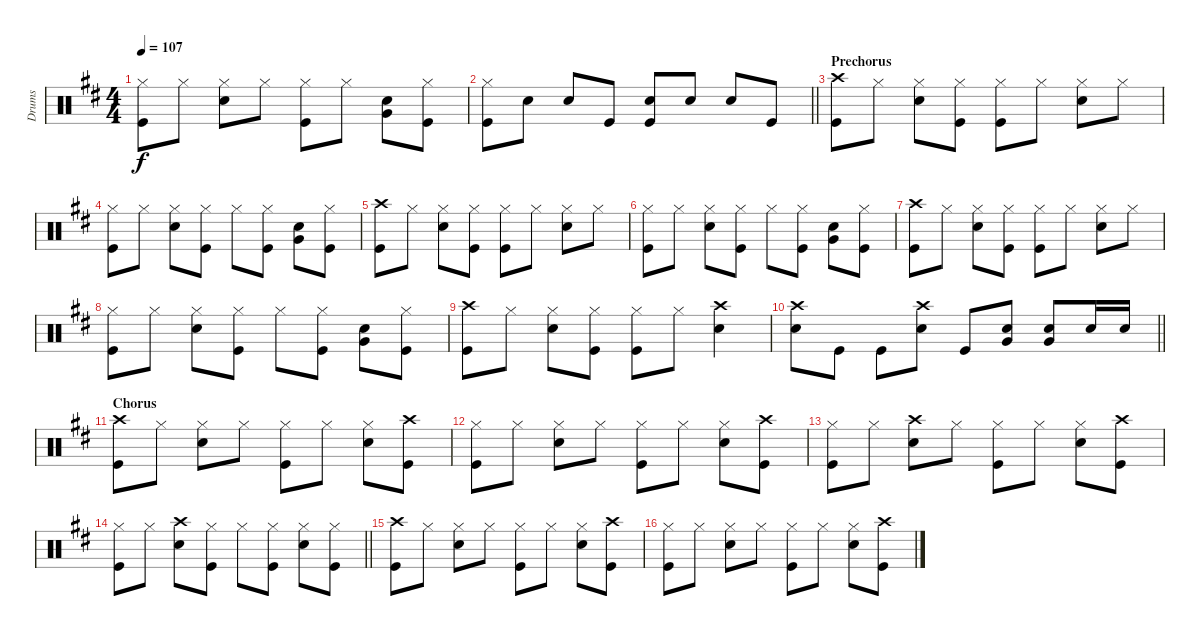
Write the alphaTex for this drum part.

\track ("Drums" "Drums") {instrument percussion}
\staff {score}
\articulation defaults
\ts (4 4)
\tempo 107
\clef neutral
\ks d
("Hi-Hat (closed)" "Kick (hit)").8{dy f} "Hi-Hat (closed)".8 ("Hi-Hat (closed)" "Snare (hit) 2").8 "Hi-Hat (closed)".8 ("Hi-Hat (closed)" "Kick (hit)").8 "Hi-Hat (closed)".8 ("Snare (hit) 2" "Very Low Tom (hit)").8 ("Hi-Hat (closed)" "Kick (hit)").8 |
\barLineRight lightlight
("Hi-Hat (closed)" "Kick (hit)").8 "Snare (hit) 2".8 "Snare (hit) 2".8 "Kick (hit)".8 ("Snare (hit) 2" "Kick (hit)").8 "Snare (hit) 2".8 "Snare (hit) 2".8 "Kick (hit)".8 |
\section ("" "Prechorus")
("Crash high (hit)" "Kick (hit)").8 "Hi-Hat (closed)".8 ("Hi-Hat (closed)" "Snare (hit) 2").8 ("Hi-Hat (closed)" "Kick (hit)").8 ("Hi-Hat (closed)" "Kick (hit)").8 "Hi-Hat (closed)".8 ("Hi-Hat (closed)" "Snare (hit) 2").8 "Hi-Hat (closed)".8 |
("Hi-Hat (closed)" "Kick (hit)").8 "Hi-Hat (closed)".8 ("Hi-Hat (closed)" "Snare (hit) 2").8 ("Hi-Hat (closed)" "Kick (hit)").8 "Hi-Hat (closed)".8 ("Hi-Hat (closed)" "Kick (hit)").8 ("Snare (hit) 2" "Very Low Tom (hit)").8 ("Hi-Hat (closed)" "Kick (hit)").8 |
("Crash high (hit)" "Kick (hit)").8 "Hi-Hat (closed)".8 ("Hi-Hat (closed)" "Snare (hit) 2").8 ("Hi-Hat (closed)" "Kick (hit)").8 ("Hi-Hat (closed)" "Kick (hit)").8 "Hi-Hat (closed)".8 ("Hi-Hat (closed)" "Snare (hit) 2").8 "Hi-Hat (closed)".8 |
("Hi-Hat (closed)" "Kick (hit)").8 "Hi-Hat (closed)".8 ("Hi-Hat (closed)" "Snare (hit) 2").8 ("Hi-Hat (closed)" "Kick (hit)").8 "Hi-Hat (closed)".8 ("Hi-Hat (closed)" "Kick (hit)").8 ("Snare (hit) 2" "Very Low Tom (hit)").8 ("Hi-Hat (closed)" "Kick (hit)").8 |
("Crash high (hit)" "Kick (hit)").8 "Hi-Hat (closed)".8 ("Hi-Hat (closed)" "Snare (hit) 2").8 ("Hi-Hat (closed)" "Kick (hit)").8 ("Hi-Hat (closed)" "Kick (hit)").8 "Hi-Hat (closed)".8 ("Hi-Hat (closed)" "Snare (hit) 2").8 "Hi-Hat (closed)".8 |
("Hi-Hat (closed)" "Kick (hit)").8 "Hi-Hat (closed)".8 ("Hi-Hat (closed)" "Snare (hit) 2").8 ("Hi-Hat (closed)" "Kick (hit)").8 "Hi-Hat (closed)".8 ("Hi-Hat (closed)" "Kick (hit)").8 ("Snare (hit) 2" "Very Low Tom (hit)").8 ("Hi-Hat (closed)" "Kick (hit)").8 |
("Crash high (hit)" "Kick (hit)").8 "Hi-Hat (closed)".8 ("Hi-Hat (closed)" "Snare (hit) 2").8 ("Hi-Hat (closed)" "Kick (hit)").8 ("Hi-Hat (closed)" "Kick (hit)").8 "Hi-Hat (closed)".8 ("Crash high (hit)" "Snare (hit) 2").4 |
\barLineRight lightlight
("Crash high (hit)" "Snare (hit) 2").8 "Kick (hit)".8 "Kick (hit)".8 ("Crash high (hit)" "Snare (hit) 2").8 "Kick (hit)".8 ("Snare (hit) 2" "Very Low Tom (hit)").8 ("Snare (hit) 2" "Very Low Tom (hit)").8 "Snare (hit) 2".16 "Snare (hit) 2".16 |
\section ("" "Chorus")
("Crash high (hit)" "Kick (hit)").8 "Hi-Hat (closed)".8 ("Hi-Hat (closed)" "Snare (hit) 2").8 "Hi-Hat (closed)".8 ("Hi-Hat (closed)" "Kick (hit)").8 "Hi-Hat (closed)".8 ("Hi-Hat (closed)" "Snare (hit) 2").8 ("Crash high (hit)" "Kick (hit)").8 |
("Hi-Hat (closed)" "Kick (hit)").8 "Hi-Hat (closed)".8 ("Hi-Hat (closed)" "Snare (hit) 2").8 "Hi-Hat (closed)".8 ("Hi-Hat (closed)" "Kick (hit)").8 "Hi-Hat (closed)".8 ("Hi-Hat (closed)" "Snare (hit) 2").8 ("Crash high (hit)" "Kick (hit)").8 |
("Hi-Hat (closed)" "Kick (hit)").8 "Hi-Hat (closed)".8 ("Crash high (hit)" "Snare (hit) 2").8 "Hi-Hat (closed)".8 ("Hi-Hat (closed)" "Kick (hit)").8 "Hi-Hat (closed)".8 ("Hi-Hat (closed)" "Snare (hit) 2").8 ("Crash high (hit)" "Kick (hit)").8 |
\barLineRight lightlight
("Hi-Hat (closed)" "Kick (hit)").8 "Hi-Hat (closed)".8 ("Crash high (hit)" "Snare (hit) 2").8 ("Hi-Hat (closed)" "Kick (hit)").8 "Hi-Hat (closed)".8 ("Hi-Hat (closed)" "Kick (hit)").8 ("Hi-Hat (closed)" "Snare (hit) 2").8 ("Hi-Hat (closed)" "Kick (hit)").8 |
("Crash high (hit)" "Kick (hit)").8 "Hi-Hat (closed)".8 ("Hi-Hat (closed)" "Snare (hit) 2").8 "Hi-Hat (closed)".8 ("Hi-Hat (closed)" "Kick (hit)").8 "Hi-Hat (closed)".8 ("Hi-Hat (closed)" "Snare (hit) 2").8 ("Crash high (hit)" "Kick (hit)").8 |
("Hi-Hat (closed)" "Kick (hit)").8 "Hi-Hat (closed)".8 ("Hi-Hat (closed)" "Snare (hit) 2").8 "Hi-Hat (closed)".8 ("Hi-Hat (closed)" "Kick (hit)").8 "Hi-Hat (closed)".8 ("Hi-Hat (closed)" "Snare (hit) 2").8 ("Crash high (hit)" "Kick (hit)").8
